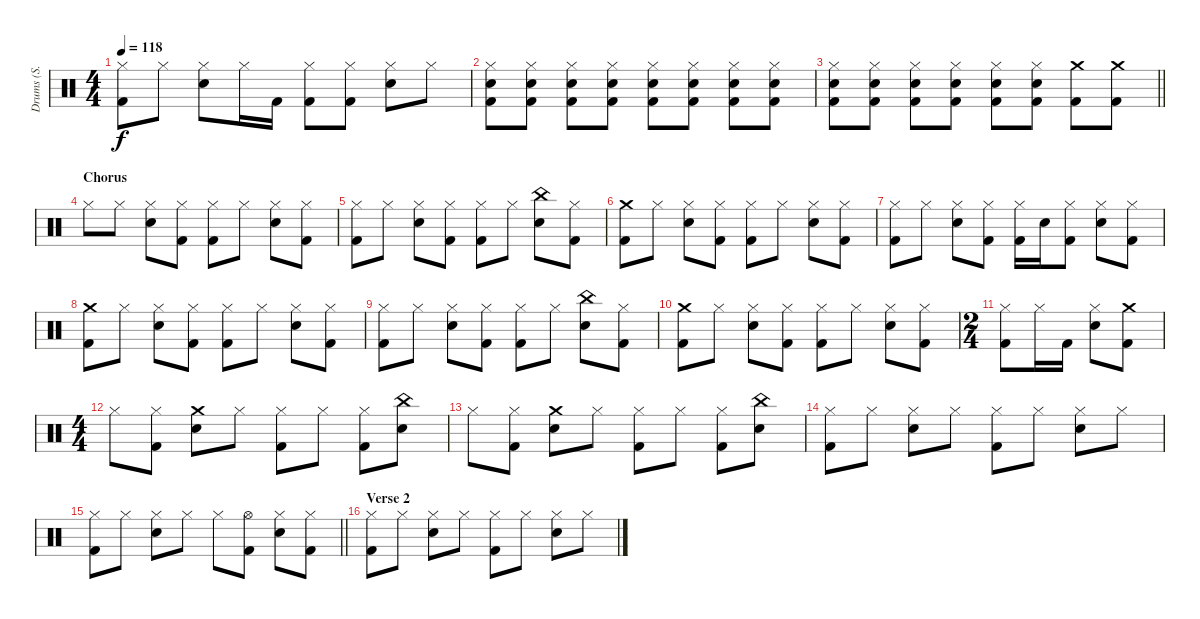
\track ("Drums (S. Rockenfield)" "Drums (S. ") {instrument percussion}
\staff {score}
\articulation defaults
\ts (4 4)
\tempo 118
\clef neutral
\ks c
("Hi-Hat (closed)" "Kick (hit) 2").8{dy f} "Hi-Hat (closed)".8 ("Hi-Hat (closed)" "Snare (hit) 2").8 "Hi-Hat (closed)".16 "Kick (hit) 2".16 ("Hi-Hat (closed)" "Kick (hit) 2").8 ("Hi-Hat (closed)" "Kick (hit) 2").8 ("Hi-Hat (closed)" "Snare (hit) 2").8 "Hi-Hat (closed)".8 |
("Hi-Hat (closed)" "Snare (hit) 2" "Kick (hit) 2").8 ("Hi-Hat (closed)" "Snare (hit) 2" "Kick (hit) 2").8 ("Hi-Hat (closed)" "Snare (hit) 2" "Kick (hit) 2").8 ("Hi-Hat (closed)" "Snare (hit) 2" "Kick (hit) 2").8 ("Hi-Hat (closed)" "Snare (hit) 2" "Kick (hit) 2").8 ("Hi-Hat (closed)" "Snare (hit) 2" "Kick (hit) 2").8 ("Hi-Hat (closed)" "Snare (hit) 2" "Kick (hit) 2").8 ("Hi-Hat (closed)" "Snare (hit) 2" "Kick (hit) 2").8 |
\barLineRight lightlight
("Hi-Hat (closed)" "Snare (hit) 2" "Kick (hit) 2").8 ("Hi-Hat (closed)" "Snare (hit) 2" "Kick (hit) 2").8 ("Hi-Hat (closed)" "Snare (hit) 2" "Kick (hit) 2").8 ("Hi-Hat (closed)" "Snare (hit) 2" "Kick (hit) 2").8 ("Hi-Hat (closed)" "Snare (hit) 2" "Kick (hit) 2").8 ("Hi-Hat (closed)" "Snare (hit) 2" "Kick (hit) 2").8 ("Crash medium (hit)" "Kick (hit) 2").8 ("Crash medium (hit)" "Kick (hit) 2").8 |
\section ("" "Chorus")
"Hi-Hat (closed)".8 "Hi-Hat (closed)".8 ("Hi-Hat (closed)" "Snare (hit) 2").8 ("Hi-Hat (closed)" "Kick (hit) 2").8 ("Hi-Hat (closed)" "Kick (hit) 2").8 "Hi-Hat (closed)".8 ("Hi-Hat (closed)" "Snare (hit) 2").8 ("Hi-Hat (closed)" "Kick (hit) 2").8 |
("Hi-Hat (closed)" "Kick (hit) 2").8 "Hi-Hat (closed)".8 ("Hi-Hat (closed)" "Snare (hit) 2").8 ("Hi-Hat (closed)" "Kick (hit) 2").8 ("Hi-Hat (closed)" "Kick (hit) 2").8 "Hi-Hat (closed)".8 ("China (hit)" "Snare (hit) 2").8 ("Hi-Hat (closed)" "Kick (hit) 2").8 |
("Crash medium (hit)" "Kick (hit) 2").8 "Hi-Hat (closed)".8 ("Hi-Hat (closed)" "Snare (hit) 2").8 ("Hi-Hat (closed)" "Kick (hit) 2").8 ("Hi-Hat (closed)" "Kick (hit) 2").8 "Hi-Hat (closed)".8 ("Hi-Hat (closed)" "Snare (hit) 2").8 ("Hi-Hat (closed)" "Kick (hit) 2").8 |
("Hi-Hat (closed)" "Kick (hit) 2").8 "Hi-Hat (closed)".8 ("Hi-Hat (closed)" "Snare (hit) 2").8 ("Hi-Hat (closed)" "Kick (hit) 2").8 ("Hi-Hat (closed)" "Kick (hit) 2").16 "Snare (hit) 2".16 ("Hi-Hat (closed)" "Kick (hit) 2").8 ("Hi-Hat (closed)" "Snare (hit) 2").8 ("Hi-Hat (closed)" "Kick (hit) 2").8 |
("Crash medium (hit)" "Kick (hit) 2").8 "Hi-Hat (closed)".8 ("Hi-Hat (closed)" "Snare (hit) 2").8 ("Hi-Hat (closed)" "Kick (hit) 2").8 ("Hi-Hat (closed)" "Kick (hit) 2").8 "Hi-Hat (closed)".8 ("Hi-Hat (closed)" "Snare (hit) 2").8 ("Hi-Hat (closed)" "Kick (hit) 2").8 |
("Hi-Hat (closed)" "Kick (hit) 2").8 "Hi-Hat (closed)".8 ("Hi-Hat (closed)" "Snare (hit) 2").8 ("Hi-Hat (closed)" "Kick (hit) 2").8 ("Hi-Hat (closed)" "Kick (hit) 2").8 "Hi-Hat (closed)".8 ("China (hit)" "Snare (hit) 2").8 ("Hi-Hat (closed)" "Kick (hit) 2").8 |
("Crash medium (hit)" "Kick (hit) 2").8 "Hi-Hat (closed)".8 ("Hi-Hat (closed)" "Snare (hit) 2").8 ("Hi-Hat (closed)" "Kick (hit) 2").8 ("Hi-Hat (closed)" "Kick (hit) 2").8 "Hi-Hat (closed)".8 ("Hi-Hat (closed)" "Snare (hit) 2").8 ("Hi-Hat (closed)" "Kick (hit) 2").8 |
\ts (2 4)
("Hi-Hat (closed)" "Kick (hit) 2").8 "Hi-Hat (closed)".16 "Kick (hit) 2".16 ("Hi-Hat (closed)" "Snare (hit) 2").8 ("Crash medium (hit)" "Kick (hit) 2").8 |
\ts (4 4)
"Hi-Hat (closed)".8 ("Hi-Hat (closed)" "Kick (hit) 2").8 ("Crash medium (hit)" "Snare (hit) 2").8 "Hi-Hat (closed)".8 ("Hi-Hat (closed)" "Kick (hit) 2").8 "Hi-Hat (closed)".8 ("Hi-Hat (closed)" "Kick (hit) 2").8 ("China (hit)" "Snare (hit) 2").8 |
"Hi-Hat (closed)".8 ("Hi-Hat (closed)" "Kick (hit) 2").8 ("Crash medium (hit)" "Snare (hit) 2").8 "Hi-Hat (closed)".8 ("Hi-Hat (closed)" "Kick (hit) 2").8 "Hi-Hat (closed)".8 ("Hi-Hat (closed)" "Kick (hit) 2").8 ("China (hit)" "Snare (hit) 2").8 |
("Hi-Hat (closed)" "Kick (hit) 2").8 "Hi-Hat (closed)".8 ("Hi-Hat (closed)" "Snare (hit) 2").8 "Hi-Hat (closed)".8 ("Hi-Hat (closed)" "Kick (hit) 2").8 "Hi-Hat (closed)".8 ("Hi-Hat (closed)" "Snare (hit) 2").8 "Hi-Hat (closed)".8 |
\barLineRight lightlight
("Hi-Hat (closed)" "Kick (hit) 2").8 "Hi-Hat (closed)".8 ("Hi-Hat (closed)" "Snare (hit) 2").8 "Hi-Hat (closed)".8 "Hi-Hat (closed)".8 ("Hi-Hat (open)" "Kick (hit) 2").8 ("Hi-Hat (closed)" "Snare (hit) 2").8 ("Hi-Hat (closed)" "Kick (hit) 2").8 |
\section ("" "Verse 2")
("Hi-Hat (closed)" "Kick (hit) 2").8 "Hi-Hat (closed)".8 ("Hi-Hat (closed)" "Snare (hit) 2").8 "Hi-Hat (closed)".8 ("Hi-Hat (closed)" "Kick (hit) 2").8 "Hi-Hat (closed)".8 ("Hi-Hat (closed)" "Snare (hit) 2").8 "Hi-Hat (closed)".8
